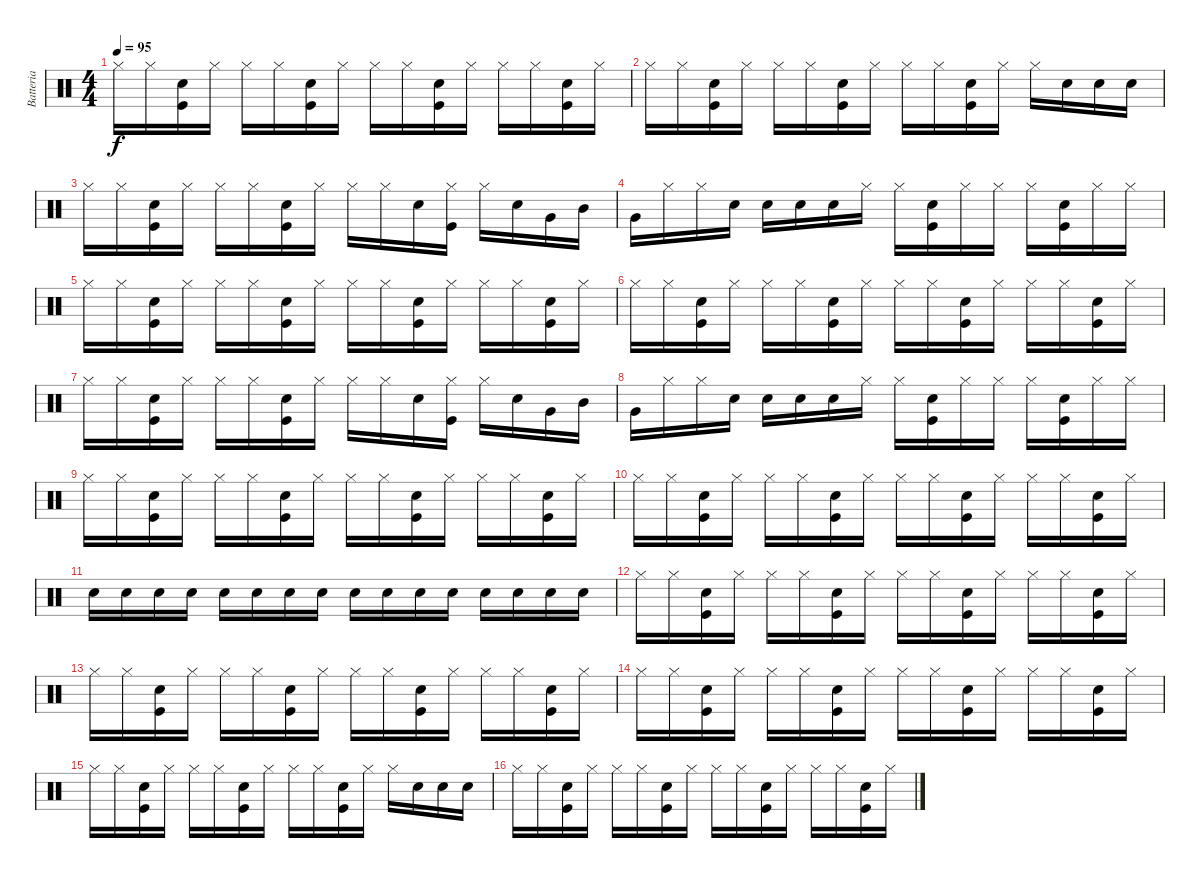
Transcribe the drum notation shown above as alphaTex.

\track ("Batteria" "Batteria") {instrument percussion}
\staff {score}
\articulation defaults
\ts (4 4)
\tempo 95
\clef neutral
\ks c "Hi-Hat (closed)".16{dy f} "Hi-Hat (closed)".16
("Electric Snare (hit)" "Kick (hit)").16 "Hi-Hat (closed)".16 "Hi-Hat (closed)".16 "Hi-Hat (closed)".16 ("Electric Snare (hit)" "Kick (hit)").16 "Hi-Hat (closed)".16 "Hi-Hat (closed)".16 "Hi-Hat (closed)".16 ("Electric Snare (hit)" "Kick (hit)").16 "Hi-Hat (closed)".16 "Hi-Hat (closed)".16 "Hi-Hat (closed)".16 ("Electric Snare (hit)" "Kick (hit)").16 "Hi-Hat (closed)".16 |
"Hi-Hat (closed)".16 "Hi-Hat (closed)".16 ("Electric Snare (hit)" "Kick (hit)").16 "Hi-Hat (closed)".16 "Hi-Hat (closed)".16 "Hi-Hat (closed)".16 ("Electric Snare (hit)" "Kick (hit)").16 "Hi-Hat (closed)".16 "Hi-Hat (closed)".16 "Hi-Hat (closed)".16 ("Electric Snare (hit)" "Kick (hit)").16 "Hi-Hat (closed)".16 "Hi-Hat (closed)".16 "Electric Snare (hit)".16 "Electric Snare (hit)".16 "Electric Snare (hit)".16 |
"Hi-Hat (closed)".16 "Hi-Hat (closed)".16 ("Electric Snare (hit)" "Kick (hit)").16 "Hi-Hat (closed)".16 "Hi-Hat (closed)".16 "Hi-Hat (closed)".16 ("Electric Snare (hit)" "Kick (hit)").16 "Hi-Hat (closed)".16 "Hi-Hat (closed)".16 "Hi-Hat (closed)".16 "Electric Snare (hit)".16 ("Hi-Hat (closed)" "Kick (hit)").16 "Hi-Hat (closed)".16 "Electric Snare (hit)".16 "Very Low Tom (hit)".16 "Mid Tom (hit)".16 |
"Very Low Tom (hit)".16 "Hi-Hat (closed)".16 "Hi-Hat (closed)".16 "Electric Snare (hit)".16 "Electric Snare (hit)".16 "Electric Snare (hit)".16 "Electric Snare (hit)".16 "Hi-Hat (closed)".16 "Hi-Hat (closed)".16 ("Electric Snare (hit)" "Kick (hit)").16 "Hi-Hat (closed)".16 "Hi-Hat (closed)".16 "Hi-Hat (closed)".16 ("Electric Snare (hit)" "Kick (hit)").16 "Hi-Hat (closed)".16 "Hi-Hat (closed)".16 |
"Hi-Hat (closed)".16 "Hi-Hat (closed)".16 ("Electric Snare (hit)" "Kick (hit)").16 "Hi-Hat (closed)".16 "Hi-Hat (closed)".16 "Hi-Hat (closed)".16 ("Electric Snare (hit)" "Kick (hit)").16 "Hi-Hat (closed)".16 "Hi-Hat (closed)".16 "Hi-Hat (closed)".16 ("Electric Snare (hit)" "Kick (hit)").16 "Hi-Hat (closed)".16 "Hi-Hat (closed)".16 "Hi-Hat (closed)".16 ("Electric Snare (hit)" "Kick (hit)").16 "Hi-Hat (closed)".16 |
"Hi-Hat (closed)".16 "Hi-Hat (closed)".16 ("Electric Snare (hit)" "Kick (hit)").16 "Hi-Hat (closed)".16 "Hi-Hat (closed)".16 "Hi-Hat (closed)".16 ("Electric Snare (hit)" "Kick (hit)").16 "Hi-Hat (closed)".16 "Hi-Hat (closed)".16 "Hi-Hat (closed)".16 ("Electric Snare (hit)" "Kick (hit)").16 "Hi-Hat (closed)".16 "Hi-Hat (closed)".16 "Hi-Hat (closed)".16 ("Electric Snare (hit)" "Kick (hit)").16 "Hi-Hat (closed)".16 |
"Hi-Hat (closed)".16 "Hi-Hat (closed)".16 ("Electric Snare (hit)" "Kick (hit)").16 "Hi-Hat (closed)".16 "Hi-Hat (closed)".16 "Hi-Hat (closed)".16 ("Electric Snare (hit)" "Kick (hit)").16 "Hi-Hat (closed)".16 "Hi-Hat (closed)".16 "Hi-Hat (closed)".16 "Electric Snare (hit)".16 ("Hi-Hat (closed)" "Kick (hit)").16 "Hi-Hat (closed)".16 "Electric Snare (hit)".16 "Very Low Tom (hit)".16 "Mid Tom (hit)".16 |
"Very Low Tom (hit)".16 "Hi-Hat (closed)".16 "Hi-Hat (closed)".16 "Electric Snare (hit)".16 "Electric Snare (hit)".16 "Electric Snare (hit)".16 "Electric Snare (hit)".16 "Hi-Hat (closed)".16 "Hi-Hat (closed)".16 ("Electric Snare (hit)" "Kick (hit)").16 "Hi-Hat (closed)".16 "Hi-Hat (closed)".16 "Hi-Hat (closed)".16 ("Electric Snare (hit)" "Kick (hit)").16 "Hi-Hat (closed)".16 "Hi-Hat (closed)".16 |
"Hi-Hat (closed)".16 "Hi-Hat (closed)".16 ("Electric Snare (hit)" "Kick (hit)").16 "Hi-Hat (closed)".16 "Hi-Hat (closed)".16 "Hi-Hat (closed)".16 ("Electric Snare (hit)" "Kick (hit)").16 "Hi-Hat (closed)".16 "Hi-Hat (closed)".16 "Hi-Hat (closed)".16 ("Electric Snare (hit)" "Kick (hit)").16 "Hi-Hat (closed)".16 "Hi-Hat (closed)".16 "Hi-Hat (closed)".16 ("Electric Snare (hit)" "Kick (hit)").16 "Hi-Hat (closed)".16 |
"Hi-Hat (closed)".16 "Hi-Hat (closed)".16 ("Electric Snare (hit)" "Kick (hit)").16 "Hi-Hat (closed)".16 "Hi-Hat (closed)".16 "Hi-Hat (closed)".16 ("Electric Snare (hit)" "Kick (hit)").16 "Hi-Hat (closed)".16 "Hi-Hat (closed)".16 "Hi-Hat (closed)".16 ("Electric Snare (hit)" "Kick (hit)").16 "Hi-Hat (closed)".16 "Hi-Hat (closed)".16 "Hi-Hat (closed)".16 ("Electric Snare (hit)" "Kick (hit)").16 "Hi-Hat (closed)".16 |
"Electric Snare (hit)".16 "Electric Snare (hit)".16 "Electric Snare (hit)".16 "Electric Snare (hit)".16 "Electric Snare (hit)".16 "Electric Snare (hit)".16 "Electric Snare (hit)".16 "Electric Snare (hit)".16 "Electric Snare (hit)".16 "Electric Snare (hit)".16 "Electric Snare (hit)".16 "Electric Snare (hit)".16 "Electric Snare (hit)".16 "Electric Snare (hit)".16 "Electric Snare (hit)".16 "Electric Snare (hit)".16 |
"Hi-Hat (closed)".16 "Hi-Hat (closed)".16 ("Electric Snare (hit)" "Kick (hit)").16 "Hi-Hat (closed)".16 "Hi-Hat (closed)".16 "Hi-Hat (closed)".16 ("Electric Snare (hit)" "Kick (hit)").16 "Hi-Hat (closed)".16 "Hi-Hat (closed)".16 "Hi-Hat (closed)".16 ("Electric Snare (hit)" "Kick (hit)").16 "Hi-Hat (closed)".16 "Hi-Hat (closed)".16 "Hi-Hat (closed)".16 ("Electric Snare (hit)" "Kick (hit)").16 "Hi-Hat (closed)".16 |
"Hi-Hat (closed)".16 "Hi-Hat (closed)".16 ("Electric Snare (hit)" "Kick (hit)").16 "Hi-Hat (closed)".16 "Hi-Hat (closed)".16 "Hi-Hat (closed)".16 ("Electric Snare (hit)" "Kick (hit)").16 "Hi-Hat (closed)".16 "Hi-Hat (closed)".16 "Hi-Hat (closed)".16 ("Electric Snare (hit)" "Kick (hit)").16 "Hi-Hat (closed)".16 "Hi-Hat (closed)".16 "Hi-Hat (closed)".16 ("Electric Snare (hit)" "Kick (hit)").16 "Hi-Hat (closed)".16 |
"Hi-Hat (closed)".16 "Hi-Hat (closed)".16 ("Electric Snare (hit)" "Kick (hit)").16 "Hi-Hat (closed)".16 "Hi-Hat (closed)".16 "Hi-Hat (closed)".16 ("Electric Snare (hit)" "Kick (hit)").16 "Hi-Hat (closed)".16 "Hi-Hat (closed)".16 "Hi-Hat (closed)".16 ("Electric Snare (hit)" "Kick (hit)").16 "Hi-Hat (closed)".16 "Hi-Hat (closed)".16 "Hi-Hat (closed)".16 ("Electric Snare (hit)" "Kick (hit)").16 "Hi-Hat (closed)".16 |
"Hi-Hat (closed)".16 "Hi-Hat (closed)".16 ("Electric Snare (hit)" "Kick (hit)").16 "Hi-Hat (closed)".16 "Hi-Hat (closed)".16 "Hi-Hat (closed)".16 ("Electric Snare (hit)" "Kick (hit)").16 "Hi-Hat (closed)".16 "Hi-Hat (closed)".16 "Hi-Hat (closed)".16 ("Electric Snare (hit)" "Kick (hit)").16 "Hi-Hat (closed)".16 "Hi-Hat (closed)".16 "Electric Snare (hit)".16 "Electric Snare (hit)".16 "Electric Snare (hit)".16 |
"Hi-Hat (closed)".16 "Hi-Hat (closed)".16 ("Electric Snare (hit)" "Kick (hit)").16 "Hi-Hat (closed)".16 "Hi-Hat (closed)".16 "Hi-Hat (closed)".16 ("Electric Snare (hit)" "Kick (hit)").16 "Hi-Hat (closed)".16 "Hi-Hat (closed)".16 "Hi-Hat (closed)".16 ("Electric Snare (hit)" "Kick (hit)").16 "Hi-Hat (closed)".16 "Hi-Hat (closed)".16 "Hi-Hat (closed)".16 ("Electric Snare (hit)" "Kick (hit)").16 "Hi-Hat (closed)".16
